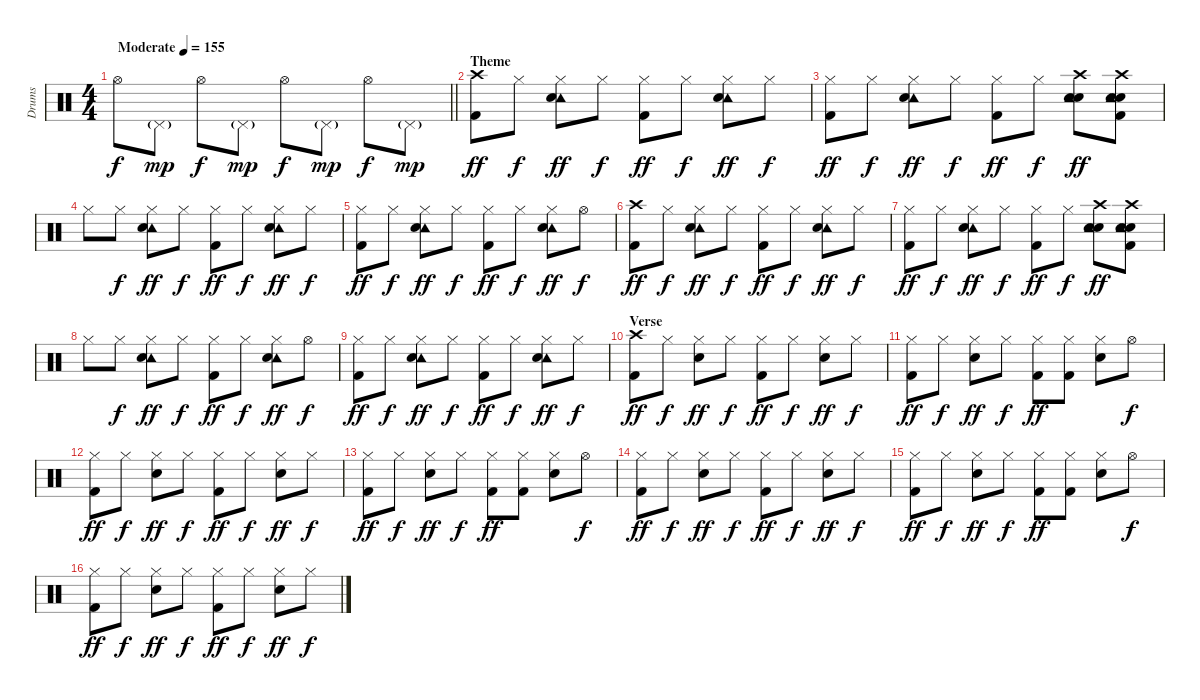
\track ("Drums" "Drums") {instrument percussion}
\staff {score}
\articulation defaults
\ts (4 4)
\tempo (155 "Moderate")
\clef neutral
\barLineRight lightlight
\ks c "Hi-Hat (open)".8{dy f} "Pedal Hi-Hat (hit)"{g}.8{dy mp} "Hi-Hat (open)".8{dy f} "Pedal Hi-Hat (hit)"{g}.8{dy mp} "Hi-Hat (open)".8{dy f} "Pedal Hi-Hat (hit)"{g}.8{dy mp} "Hi-Hat (open)".8{dy f} "Pedal Hi-Hat (hit)"{g}.8{dy mp}
|
\section ("" "Theme")
("Crash high (hit)" "Kick (hit) 2").8{dy ff} "Hi-Hat (closed)".8{dy f} ("Tambourine (hit)" "Hi-Hat (closed)" "Snare (hit) 2").8{dy ff} "Hi-Hat (closed)".8{dy f} ("Hi-Hat (closed)" "Kick (hit) 2").8{dy ff} "Hi-Hat (closed)".8{dy f} ("Tambourine (hit)" "Hi-Hat (closed)" "Snare (hit) 2").8{dy ff} "Hi-Hat (closed)".8{dy f} |
("Hi-Hat (closed)" "Kick (hit) 2").8{dy ff} "Hi-Hat (closed)".8{dy f} ("Tambourine (hit)" "Hi-Hat (closed)" "Snare (hit) 2").8{dy ff} "Hi-Hat (closed)".8{dy f} ("Hi-Hat (closed)" "Kick (hit) 2").8{dy ff} "Hi-Hat (closed)".8{dy f} ("Hand Clap (hit)" "Tambourine (hit)" "Crash high (hit)" "Snare (hit) 2").8{dy ff} ("Hand Clap (hit)" "Tambourine (hit)" "Crash high (hit)" "Snare (hit) 2" "Kick (hit) 2").8 |
"Hi-Hat (closed)".8 "Hi-Hat (closed)".8{dy f} ("Tambourine (hit)" "Hi-Hat (closed)" "Snare (hit) 2").8{dy ff} "Hi-Hat (closed)".8{dy f} ("Hi-Hat (closed)" "Kick (hit) 2").8{dy ff} "Hi-Hat (closed)".8{dy f} ("Tambourine (hit)" "Hi-Hat (closed)" "Snare (hit) 2").8{dy ff} "Hi-Hat (closed)".8{dy f} |
("Hi-Hat (closed)" "Kick (hit) 2").8{dy ff} "Hi-Hat (closed)".8{dy f} ("Tambourine (hit)" "Hi-Hat (closed)" "Snare (hit) 2").8{dy ff} "Hi-Hat (closed)".8{dy f} ("Hi-Hat (closed)" "Kick (hit) 2").8{dy ff} "Hi-Hat (closed)".8{dy f} ("Tambourine (hit)" "Hi-Hat (closed)" "Snare (hit) 2").8{dy ff} "Hi-Hat (open)".8{dy f} |
("Crash high (hit)" "Kick (hit) 2").8{dy ff} "Hi-Hat (closed)".8{dy f} ("Tambourine (hit)" "Hi-Hat (closed)" "Snare (hit) 2").8{dy ff} "Hi-Hat (closed)".8{dy f} ("Hi-Hat (closed)" "Kick (hit) 2").8{dy ff} "Hi-Hat (closed)".8{dy f} ("Tambourine (hit)" "Hi-Hat (closed)" "Snare (hit) 2").8{dy ff} "Hi-Hat (closed)".8{dy f} |
("Hi-Hat (closed)" "Kick (hit) 2").8{dy ff} "Hi-Hat (closed)".8{dy f} ("Tambourine (hit)" "Hi-Hat (closed)" "Snare (hit) 2").8{dy ff} "Hi-Hat (closed)".8{dy f} ("Hi-Hat (closed)" "Kick (hit) 2").8{dy ff} "Hi-Hat (closed)".8{dy f} ("Hand Clap (hit)" "Tambourine (hit)" "Crash high (hit)" "Snare (hit) 2").8{dy ff} ("Hand Clap (hit)" "Tambourine (hit)" "Crash high (hit)" "Snare (hit) 2" "Kick (hit) 2").8 |
"Hi-Hat (closed)".8 "Hi-Hat (closed)".8{dy f} ("Tambourine (hit)" "Hi-Hat (closed)" "Snare (hit) 2").8{dy ff} "Hi-Hat (closed)".8{dy f} ("Hi-Hat (closed)" "Kick (hit) 2").8{dy ff} "Hi-Hat (closed)".8{dy f} ("Tambourine (hit)" "Hi-Hat (closed)" "Snare (hit) 2").8{dy ff} "Hi-Hat (open)".8{dy f} |
("Hi-Hat (closed)" "Kick (hit) 2").8{dy ff} "Hi-Hat (closed)".8{dy f} ("Tambourine (hit)" "Hi-Hat (closed)" "Snare (hit) 2").8{dy ff} "Hi-Hat (closed)".8{dy f} ("Hi-Hat (closed)" "Kick (hit) 2").8{dy ff} "Hi-Hat (closed)".8{dy f} ("Tambourine (hit)" "Hi-Hat (closed)" "Snare (hit) 2").8{dy ff} "Hi-Hat (closed)".8{dy f} |
\section ("" "Verse")
("Crash high (hit)" "Kick (hit) 2").8{dy ff} "Hi-Hat (closed)".8{dy f} ("Hi-Hat (closed)" "Snare (hit) 2").8{dy ff} "Hi-Hat (closed)".8{dy f} ("Hi-Hat (closed)" "Kick (hit) 2").8{dy ff} "Hi-Hat (closed)".8{dy f} ("Hi-Hat (closed)" "Snare (hit) 2").8{dy ff} "Hi-Hat (closed)".8{dy f} |
("Hi-Hat (closed)" "Kick (hit) 2").8{dy ff} "Hi-Hat (closed)".8{dy f} ("Hi-Hat (closed)" "Snare (hit) 2").8{dy ff} "Hi-Hat (closed)".8{dy f} ("Hi-Hat (closed)" "Kick (hit) 2").8{dy ff} ("Hi-Hat (closed)" "Kick (hit) 2").8 ("Hi-Hat (closed)" "Snare (hit) 2").8 "Hi-Hat (open)".8{dy f} |
("Hi-Hat (closed)" "Kick (hit) 2").8{dy ff} "Hi-Hat (closed)".8{dy f} ("Hi-Hat (closed)" "Snare (hit) 2").8{dy ff} "Hi-Hat (closed)".8{dy f} ("Hi-Hat (closed)" "Kick (hit) 2").8{dy ff} "Hi-Hat (closed)".8{dy f} ("Hi-Hat (closed)" "Snare (hit) 2").8{dy ff} "Hi-Hat (closed)".8{dy f} |
("Hi-Hat (closed)" "Kick (hit) 2").8{dy ff} "Hi-Hat (closed)".8{dy f} ("Hi-Hat (closed)" "Snare (hit) 2").8{dy ff} "Hi-Hat (closed)".8{dy f} ("Hi-Hat (closed)" "Kick (hit) 2").8{dy ff} ("Hi-Hat (closed)" "Kick (hit) 2").8 ("Hi-Hat (closed)" "Snare (hit) 2").8 "Hi-Hat (open)".8{dy f} |
("Hi-Hat (closed)" "Kick (hit) 2").8{dy ff} "Hi-Hat (closed)".8{dy f} ("Hi-Hat (closed)" "Snare (hit) 2").8{dy ff} "Hi-Hat (closed)".8{dy f} ("Hi-Hat (closed)" "Kick (hit) 2").8{dy ff} "Hi-Hat (closed)".8{dy f} ("Hi-Hat (closed)" "Snare (hit) 2").8{dy ff} "Hi-Hat (closed)".8{dy f} |
("Hi-Hat (closed)" "Kick (hit) 2").8{dy ff} "Hi-Hat (closed)".8{dy f} ("Hi-Hat (closed)" "Snare (hit) 2").8{dy ff} "Hi-Hat (closed)".8{dy f} ("Hi-Hat (closed)" "Kick (hit) 2").8{dy ff} ("Hi-Hat (closed)" "Kick (hit) 2").8 ("Hi-Hat (closed)" "Snare (hit) 2").8 "Hi-Hat (open)".8{dy f} |
("Hi-Hat (closed)" "Kick (hit) 2").8{dy ff} "Hi-Hat (closed)".8{dy f} ("Hi-Hat (closed)" "Snare (hit) 2").8{dy ff} "Hi-Hat (closed)".8{dy f} ("Hi-Hat (closed)" "Kick (hit) 2").8{dy ff} "Hi-Hat (closed)".8{dy f} ("Hi-Hat (closed)" "Snare (hit) 2").8{dy ff} "Hi-Hat (closed)".8{dy f}
